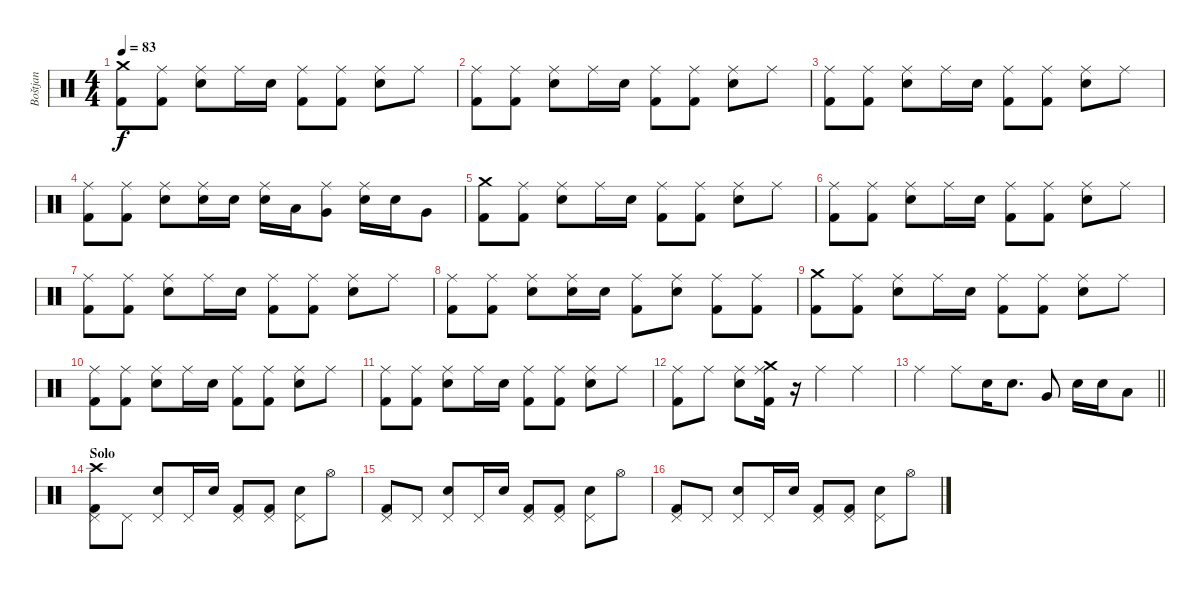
\track ("Boštjan" "Boštjan") {instrument percussion}
\staff {score}
\articulation defaults
\ts (4 4)
\tempo 83
\clef neutral
\ks c
("Crash medium (hit)" "Kick (hit) 2").8{dy f} ("Ride (middle)" "Kick (hit) 2").8 ("Ride (middle)" "Snare (hit) 2").8 "Ride (middle)".16 "Snare (hit) 2".16 ("Ride (middle)" "Kick (hit) 2").8 ("Ride (middle)" "Kick (hit) 2").8 ("Ride (middle)" "Snare (hit) 2").8 "Ride (middle)".8 |
("Ride (middle)" "Kick (hit) 2").8 ("Ride (middle)" "Kick (hit) 2").8 ("Ride (middle)" "Snare (hit) 2").8 "Ride (middle)".16 "Snare (hit) 2".16 ("Ride (middle)" "Kick (hit) 2").8 ("Ride (middle)" "Kick (hit) 2").8 ("Ride (middle)" "Snare (hit) 2").8 "Ride (middle)".8 |
("Ride (middle)" "Kick (hit) 2").8 ("Ride (middle)" "Kick (hit) 2").8 ("Ride (middle)" "Snare (hit) 2").8 "Ride (middle)".16 "Snare (hit) 2".16 ("Ride (middle)" "Kick (hit) 2").8 ("Ride (middle)" "Kick (hit) 2").8 ("Ride (middle)" "Snare (hit) 2").8 "Ride (middle)".8 |
("Ride (middle)" "Kick (hit) 2").8 ("Ride (middle)" "Kick (hit) 2").8 ("Ride (middle)" "Snare (hit) 2").8 ("Ride (middle)" "Snare (hit) 2").16 "Snare (hit) 2".16 ("Ride (middle)" "Snare (hit) 2").16 "Low Tom (hit)".16 ("Ride (middle)" "Very Low Tom (hit)").8 ("Ride (middle)" "Snare (hit) 2").16 "Snare (hit) 2".16 "Very Low Tom (hit)".8 |
("Crash medium (hit)" "Kick (hit) 2").8 ("Ride (middle)" "Kick (hit) 2").8 ("Ride (middle)" "Snare (hit) 2").8 "Ride (middle)".16 "Snare (hit) 2".16 ("Ride (middle)" "Kick (hit) 2").8 ("Ride (middle)" "Kick (hit) 2").8 ("Ride (middle)" "Snare (hit) 2").8 "Ride (middle)".8 |
("Ride (middle)" "Kick (hit) 2").8 ("Ride (middle)" "Kick (hit) 2").8 ("Ride (middle)" "Snare (hit) 2").8 "Ride (middle)".16 "Snare (hit) 2".16 ("Ride (middle)" "Kick (hit) 2").8 ("Ride (middle)" "Kick (hit) 2").8 ("Ride (middle)" "Snare (hit) 2").8 "Ride (middle)".8 |
("Ride (middle)" "Kick (hit) 2").8 ("Ride (middle)" "Kick (hit) 2").8 ("Ride (middle)" "Snare (hit) 2").8 "Ride (middle)".16 "Snare (hit) 2".16 ("Ride (middle)" "Kick (hit) 2").8 ("Ride (middle)" "Kick (hit) 2").8 ("Ride (middle)" "Snare (hit) 2").8 "Ride (middle)".8 |
("Ride (middle)" "Kick (hit) 2").8 ("Ride (middle)" "Kick (hit) 2").8 ("Ride (middle)" "Snare (hit) 2").8 ("Ride (middle)" "Snare (hit) 2").16 "Snare (hit) 2".16 ("Ride (middle)" "Kick (hit) 2").8 ("Ride (middle)" "Snare (hit) 2").8 ("Ride (middle)" "Kick (hit) 2").8 ("Ride (middle)" "Kick (hit) 2").8 |
("Crash medium (hit)" "Kick (hit) 2").8 ("Ride (middle)" "Kick (hit) 2").8 ("Ride (middle)" "Snare (hit) 2").8 "Ride (middle)".16 "Snare (hit) 2".16 ("Ride (middle)" "Kick (hit) 2").8 ("Ride (middle)" "Kick (hit) 2").8 ("Ride (middle)" "Snare (hit) 2").8 "Ride (middle)".8 |
("Ride (middle)" "Kick (hit) 2").8 ("Ride (middle)" "Kick (hit) 2").8 ("Ride (middle)" "Snare (hit) 2").8 "Ride (middle)".16 "Snare (hit) 2".16 ("Ride (middle)" "Kick (hit) 2").8 ("Ride (middle)" "Kick (hit) 2").8 ("Ride (middle)" "Snare (hit) 2").8 "Ride (middle)".8 |
("Ride (middle)" "Kick (hit) 2").8 ("Ride (middle)" "Kick (hit) 2").8 ("Ride (middle)" "Snare (hit) 2").8 "Ride (middle)".16 "Snare (hit) 2".16 ("Ride (middle)" "Kick (hit) 2").8 ("Ride (middle)" "Kick (hit) 2").8 ("Ride (middle)" "Snare (hit) 2").8 "Ride (middle)".8 |
("Ride (middle)" "Kick (hit) 2").8 "Ride (middle)".8 ("Ride (middle)" "Snare (hit) 2").8 ("Ride (middle)" "Crash medium (hit)" "Kick (hit) 2").16 r.16 "Ride (middle)".4 "Ride (middle)".4 |
\barLineRight lightlight "Ride (middle)".4 "Ride (middle)".8 "Snare (hit) 2".16 "Snare (hit) 2".8{d} "Very Low Tom (hit)".8 "Snare (hit) 2".16 "Snare (hit) 2".16 "Low Floor Tom (hit)".8
|
\section ("" "Solo")
("Pedal Hi-Hat (hit)" "Crash high (hit)" "Kick (hit) 2").8 "Pedal Hi-Hat (hit)".8 ("Pedal Hi-Hat (hit)" "Snare (hit) 2").8 "Pedal Hi-Hat (hit)".16 "Snare (hit) 2".16 ("Pedal Hi-Hat (hit)" "Kick (hit) 2").8 ("Pedal Hi-Hat (hit)" "Kick (hit) 2").8 ("Pedal Hi-Hat (hit)" "Snare (hit) 2").8 "Hi-Hat (open)".8 |
("Pedal Hi-Hat (hit)" "Kick (hit) 2").8 "Pedal Hi-Hat (hit)".8 ("Pedal Hi-Hat (hit)" "Snare (hit) 2").8 "Pedal Hi-Hat (hit)".16 "Snare (hit) 2".16 ("Pedal Hi-Hat (hit)" "Kick (hit) 2").8 ("Pedal Hi-Hat (hit)" "Kick (hit) 2").8 ("Pedal Hi-Hat (hit)" "Snare (hit) 2").8 "Hi-Hat (open)".8 |
("Pedal Hi-Hat (hit)" "Kick (hit) 2").8 "Pedal Hi-Hat (hit)".8 ("Pedal Hi-Hat (hit)" "Snare (hit) 2").8 "Pedal Hi-Hat (hit)".16 "Snare (hit) 2".16 ("Pedal Hi-Hat (hit)" "Kick (hit) 2").8 ("Pedal Hi-Hat (hit)" "Kick (hit) 2").8 ("Pedal Hi-Hat (hit)" "Snare (hit) 2").8 "Hi-Hat (open)".8
